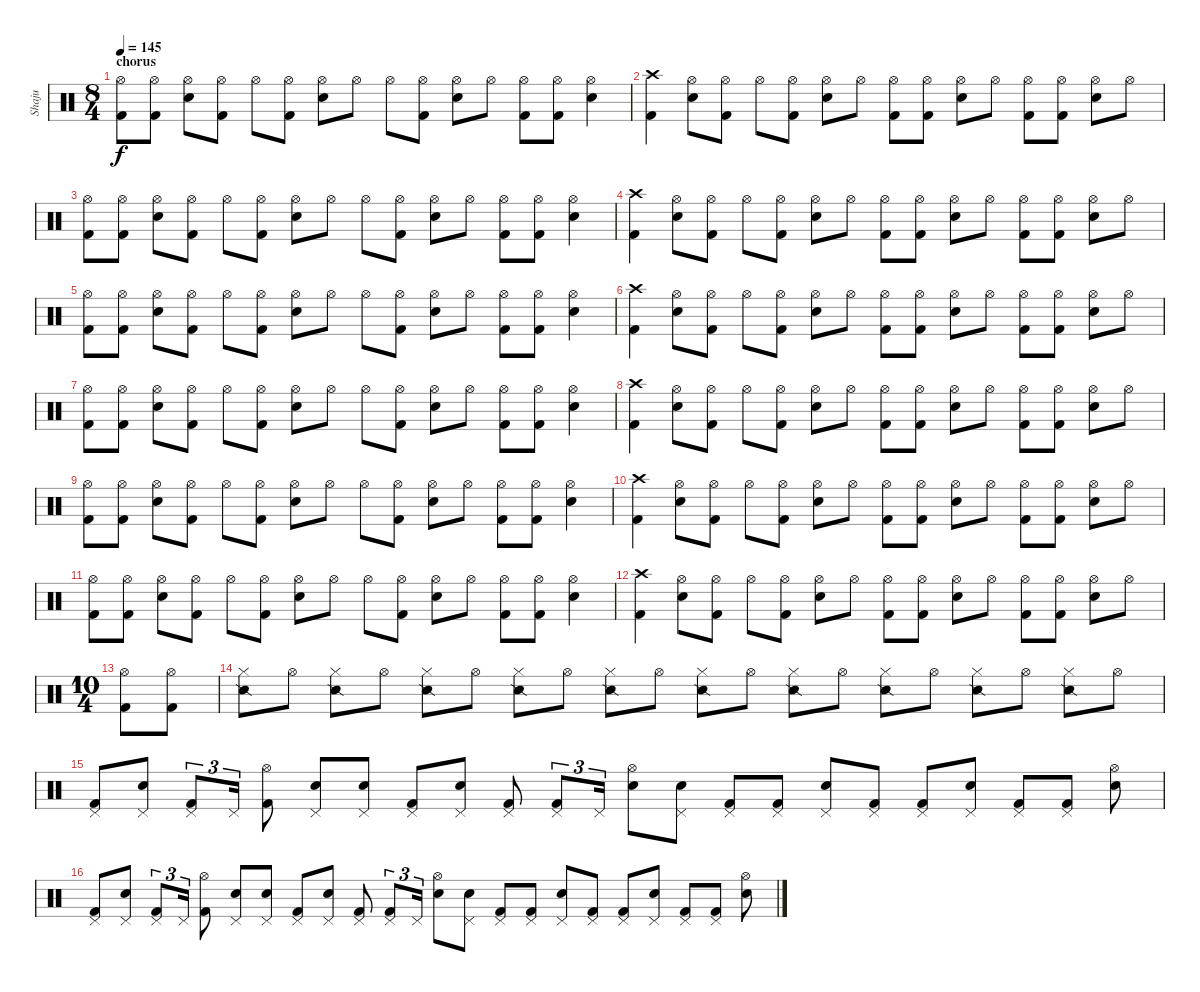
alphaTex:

\track ("Shaju" "Shaju") {instrument percussion}
\staff {score}
\articulation defaults
\ts (8 4)
\section ("" "chorus")
\tempo 145
\clef neutral
\ks c
("Hi-Hat (open)" "Kick (hit) 2").8{dy f} ("Hi-Hat (open)" "Kick (hit) 2").8 ("Hi-Hat (open)" "Snare (hit) 2").8 ("Hi-Hat (open)" "Kick (hit) 2").8 "Hi-Hat (open)".8 ("Hi-Hat (open)" "Kick (hit) 2").8 ("Hi-Hat (open)" "Snare (hit) 2").8 "Hi-Hat (open)".8 "Hi-Hat (open)".8 ("Hi-Hat (open)" "Kick (hit) 2").8 ("Hi-Hat (open)" "Snare (hit) 2").8 "Hi-Hat (open)".8 ("Hi-Hat (open)" "Kick (hit) 2").8 ("Hi-Hat (open)" "Kick (hit) 2").8 ("Hi-Hat (open)" "Snare (hit) 2").4 |
("Crash high (hit)" "Kick (hit) 2").4 ("Hi-Hat (open)" "Snare (hit) 2").8 ("Hi-Hat (open)" "Kick (hit) 2").8 "Hi-Hat (open)".8 ("Hi-Hat (open)" "Kick (hit) 2").8 ("Hi-Hat (open)" "Snare (hit) 2").8 "Hi-Hat (open)".8 ("Hi-Hat (open)" "Kick (hit) 2").8 ("Hi-Hat (open)" "Kick (hit) 2").8 ("Hi-Hat (open)" "Snare (hit) 2").8 "Hi-Hat (open)".8 ("Hi-Hat (open)" "Kick (hit) 2").8 ("Hi-Hat (open)" "Kick (hit) 2").8 ("Hi-Hat (open)" "Snare (hit) 2").8 "Hi-Hat (open)".8 |
("Hi-Hat (open)" "Kick (hit) 2").8 ("Hi-Hat (open)" "Kick (hit) 2").8 ("Hi-Hat (open)" "Snare (hit) 2").8 ("Hi-Hat (open)" "Kick (hit) 2").8 "Hi-Hat (open)".8 ("Hi-Hat (open)" "Kick (hit) 2").8 ("Hi-Hat (open)" "Snare (hit) 2").8 "Hi-Hat (open)".8 "Hi-Hat (open)".8 ("Hi-Hat (open)" "Kick (hit) 2").8 ("Hi-Hat (open)" "Snare (hit) 2").8 "Hi-Hat (open)".8 ("Hi-Hat (open)" "Kick (hit) 2").8 ("Hi-Hat (open)" "Kick (hit) 2").8 ("Hi-Hat (open)" "Snare (hit) 2").4 |
("Crash high (hit)" "Kick (hit) 2").4 ("Hi-Hat (open)" "Snare (hit) 2").8 ("Hi-Hat (open)" "Kick (hit) 2").8 "Hi-Hat (open)".8 ("Hi-Hat (open)" "Kick (hit) 2").8 ("Hi-Hat (open)" "Snare (hit) 2").8 "Hi-Hat (open)".8 ("Hi-Hat (open)" "Kick (hit) 2").8 ("Hi-Hat (open)" "Kick (hit) 2").8 ("Hi-Hat (open)" "Snare (hit) 2").8 "Hi-Hat (open)".8 ("Hi-Hat (open)" "Kick (hit) 2").8 ("Hi-Hat (open)" "Kick (hit) 2").8 ("Hi-Hat (open)" "Snare (hit) 2").8 "Hi-Hat (open)".8 |
("Hi-Hat (open)" "Kick (hit) 2").8 ("Hi-Hat (open)" "Kick (hit) 2").8 ("Hi-Hat (open)" "Snare (hit) 2").8 ("Hi-Hat (open)" "Kick (hit) 2").8 "Hi-Hat (open)".8 ("Hi-Hat (open)" "Kick (hit) 2").8 ("Hi-Hat (open)" "Snare (hit) 2").8 "Hi-Hat (open)".8 "Hi-Hat (open)".8 ("Hi-Hat (open)" "Kick (hit) 2").8 ("Hi-Hat (open)" "Snare (hit) 2").8 "Hi-Hat (open)".8 ("Hi-Hat (open)" "Kick (hit) 2").8 ("Hi-Hat (open)" "Kick (hit) 2").8 ("Hi-Hat (open)" "Snare (hit) 2").4 |
("Crash high (hit)" "Kick (hit) 2").4 ("Hi-Hat (open)" "Snare (hit) 2").8 ("Hi-Hat (open)" "Kick (hit) 2").8 "Hi-Hat (open)".8 ("Hi-Hat (open)" "Kick (hit) 2").8 ("Hi-Hat (open)" "Snare (hit) 2").8 "Hi-Hat (open)".8 ("Hi-Hat (open)" "Kick (hit) 2").8 ("Hi-Hat (open)" "Kick (hit) 2").8 ("Hi-Hat (open)" "Snare (hit) 2").8 "Hi-Hat (open)".8 ("Hi-Hat (open)" "Kick (hit) 2").8 ("Hi-Hat (open)" "Kick (hit) 2").8 ("Hi-Hat (open)" "Snare (hit) 2").8 "Hi-Hat (open)".8 |
("Hi-Hat (open)" "Kick (hit) 2").8 ("Hi-Hat (open)" "Kick (hit) 2").8 ("Hi-Hat (open)" "Snare (hit) 2").8 ("Hi-Hat (open)" "Kick (hit) 2").8 "Hi-Hat (open)".8 ("Hi-Hat (open)" "Kick (hit) 2").8 ("Hi-Hat (open)" "Snare (hit) 2").8 "Hi-Hat (open)".8 "Hi-Hat (open)".8 ("Hi-Hat (open)" "Kick (hit) 2").8 ("Hi-Hat (open)" "Snare (hit) 2").8 "Hi-Hat (open)".8 ("Hi-Hat (open)" "Kick (hit) 2").8 ("Hi-Hat (open)" "Kick (hit) 2").8 ("Hi-Hat (open)" "Snare (hit) 2").4 |
("Crash high (hit)" "Kick (hit) 2").4 ("Hi-Hat (open)" "Snare (hit) 2").8 ("Hi-Hat (open)" "Kick (hit) 2").8 "Hi-Hat (open)".8 ("Hi-Hat (open)" "Kick (hit) 2").8 ("Hi-Hat (open)" "Snare (hit) 2").8 "Hi-Hat (open)".8 ("Hi-Hat (open)" "Kick (hit) 2").8 ("Hi-Hat (open)" "Kick (hit) 2").8 ("Hi-Hat (open)" "Snare (hit) 2").8 "Hi-Hat (open)".8 ("Hi-Hat (open)" "Kick (hit) 2").8 ("Hi-Hat (open)" "Kick (hit) 2").8 ("Hi-Hat (open)" "Snare (hit) 2").8 "Hi-Hat (open)".8 |
("Hi-Hat (open)" "Kick (hit) 2").8 ("Hi-Hat (open)" "Kick (hit) 2").8 ("Hi-Hat (open)" "Snare (hit) 2").8 ("Hi-Hat (open)" "Kick (hit) 2").8 "Hi-Hat (open)".8 ("Hi-Hat (open)" "Kick (hit) 2").8 ("Hi-Hat (open)" "Snare (hit) 2").8 "Hi-Hat (open)".8 "Hi-Hat (open)".8 ("Hi-Hat (open)" "Kick (hit) 2").8 ("Hi-Hat (open)" "Snare (hit) 2").8 "Hi-Hat (open)".8 ("Hi-Hat (open)" "Kick (hit) 2").8 ("Hi-Hat (open)" "Kick (hit) 2").8 ("Hi-Hat (open)" "Snare (hit) 2").4 |
("Crash high (hit)" "Kick (hit) 2").4 ("Hi-Hat (open)" "Snare (hit) 2").8 ("Hi-Hat (open)" "Kick (hit) 2").8 "Hi-Hat (open)".8 ("Hi-Hat (open)" "Kick (hit) 2").8 ("Hi-Hat (open)" "Snare (hit) 2").8 "Hi-Hat (open)".8 ("Hi-Hat (open)" "Kick (hit) 2").8 ("Hi-Hat (open)" "Kick (hit) 2").8 ("Hi-Hat (open)" "Snare (hit) 2").8 "Hi-Hat (open)".8 ("Hi-Hat (open)" "Kick (hit) 2").8 ("Hi-Hat (open)" "Kick (hit) 2").8 ("Hi-Hat (open)" "Snare (hit) 2").8 "Hi-Hat (open)".8 |
("Hi-Hat (open)" "Kick (hit) 2").8 ("Hi-Hat (open)" "Kick (hit) 2").8 ("Hi-Hat (open)" "Snare (hit) 2").8 ("Hi-Hat (open)" "Kick (hit) 2").8 "Hi-Hat (open)".8 ("Hi-Hat (open)" "Kick (hit) 2").8 ("Hi-Hat (open)" "Snare (hit) 2").8 "Hi-Hat (open)".8 "Hi-Hat (open)".8 ("Hi-Hat (open)" "Kick (hit) 2").8 ("Hi-Hat (open)" "Snare (hit) 2").8 "Hi-Hat (open)".8 ("Hi-Hat (open)" "Kick (hit) 2").8 ("Hi-Hat (open)" "Kick (hit) 2").8 ("Hi-Hat (open)" "Snare (hit) 2").4 |
("Crash high (hit)" "Kick (hit) 2").4 ("Hi-Hat (open)" "Snare (hit) 2").8 ("Hi-Hat (open)" "Kick (hit) 2").8 "Hi-Hat (open)".8 ("Hi-Hat (open)" "Kick (hit) 2").8 ("Hi-Hat (open)" "Snare (hit) 2").8 "Hi-Hat (open)".8 ("Hi-Hat (open)" "Kick (hit) 2").8 ("Hi-Hat (open)" "Kick (hit) 2").8 ("Hi-Hat (open)" "Snare (hit) 2").8 "Hi-Hat (open)".8 ("Hi-Hat (open)" "Kick (hit) 2").8 ("Hi-Hat (open)" "Kick (hit) 2").8 ("Hi-Hat (open)" "Snare (hit) 2").8 "Hi-Hat (open)".8 |
\ts (10 4)
("Hi-Hat (open)" "Kick (hit) 2").8 ("Hi-Hat (open)" "Kick (hit) 2").8 |
("Hi-Hat (closed)" "Snare (side stick) 2").8 "Hi-Hat (open)".8 ("Hi-Hat (closed)" "Snare (side stick) 2").8 "Hi-Hat (open)".8 ("Hi-Hat (closed)" "Snare (side stick) 2").8 "Hi-Hat (open)".8 ("Hi-Hat (closed)" "Snare (side stick) 2").8 "Hi-Hat (open)".8 ("Hi-Hat (closed)" "Snare (side stick) 2").8 "Hi-Hat (open)".8 ("Hi-Hat (closed)" "Snare (side stick) 2").8 "Hi-Hat (open)".8 ("Hi-Hat (closed)" "Snare (side stick) 2").8 "Hi-Hat (open)".8 ("Hi-Hat (closed)" "Snare (side stick) 2").8 "Hi-Hat (open)".8 ("Hi-Hat (closed)" "Snare (side stick) 2").8 "Hi-Hat (open)".8 ("Hi-Hat (closed)" "Snare (side stick) 2").8 "Hi-Hat (open)".8 |
("Pedal Hi-Hat (hit)" "Kick (hit) 2").8 ("Pedal Hi-Hat (hit)" "Snare (hit) 2").8 ("Pedal Hi-Hat (hit)" "Kick (hit) 2").8{tu (3 2)} "Pedal Hi-Hat (hit)".16{tu (3 2)} ("Hi-Hat (open)" "Kick (hit) 2").8 ("Pedal Hi-Hat (hit)" "Snare (hit) 2").8 ("Pedal Hi-Hat (hit)" "Snare (hit) 2").8 ("Pedal Hi-Hat (hit)" "Kick (hit) 2").8 ("Pedal Hi-Hat (hit)" "Snare (hit) 2").8 ("Pedal Hi-Hat (hit)" "Kick (hit) 2").8 ("Pedal Hi-Hat (hit)" "Kick (hit) 2").8{tu (3 2)} "Pedal Hi-Hat (hit)".16{tu (3 2)} ("Hi-Hat (open)" "Snare (hit) 2").8 ("Pedal Hi-Hat (hit)" "Snare (hit) 2").8 ("Pedal Hi-Hat (hit)" "Kick (hit) 2").8 ("Pedal Hi-Hat (hit)" "Kick (hit) 2").8 ("Pedal Hi-Hat (hit)" "Snare (hit) 2").8 ("Pedal Hi-Hat (hit)" "Kick (hit) 2").8 ("Pedal Hi-Hat (hit)" "Kick (hit) 2").8 ("Pedal Hi-Hat (hit)" "Snare (hit) 2").8 ("Pedal Hi-Hat (hit)" "Kick (hit) 2").8 ("Pedal Hi-Hat (hit)" "Kick (hit) 2").8 ("Hi-Hat (open)" "Snare (hit) 2").8 |
("Pedal Hi-Hat (hit)" "Kick (hit) 2").8 ("Pedal Hi-Hat (hit)" "Snare (hit) 2").8 ("Pedal Hi-Hat (hit)" "Kick (hit) 2").8{tu (3 2)} "Pedal Hi-Hat (hit)".16{tu (3 2)} ("Hi-Hat (open)" "Kick (hit) 2").8 ("Pedal Hi-Hat (hit)" "Snare (hit) 2").8 ("Pedal Hi-Hat (hit)" "Snare (hit) 2").8 ("Pedal Hi-Hat (hit)" "Kick (hit) 2").8 ("Pedal Hi-Hat (hit)" "Snare (hit) 2").8 ("Pedal Hi-Hat (hit)" "Kick (hit) 2").8 ("Pedal Hi-Hat (hit)" "Kick (hit) 2").8{tu (3 2)} "Pedal Hi-Hat (hit)".16{tu (3 2)} ("Hi-Hat (open)" "Snare (hit) 2").8 ("Pedal Hi-Hat (hit)" "Snare (hit) 2").8 ("Pedal Hi-Hat (hit)" "Kick (hit) 2").8 ("Pedal Hi-Hat (hit)" "Kick (hit) 2").8 ("Pedal Hi-Hat (hit)" "Snare (hit) 2").8 ("Pedal Hi-Hat (hit)" "Kick (hit) 2").8 ("Pedal Hi-Hat (hit)" "Kick (hit) 2").8 ("Pedal Hi-Hat (hit)" "Snare (hit) 2").8 ("Pedal Hi-Hat (hit)" "Kick (hit) 2").8 ("Pedal Hi-Hat (hit)" "Kick (hit) 2").8 ("Hi-Hat (open)" "Snare (hit) 2").8
